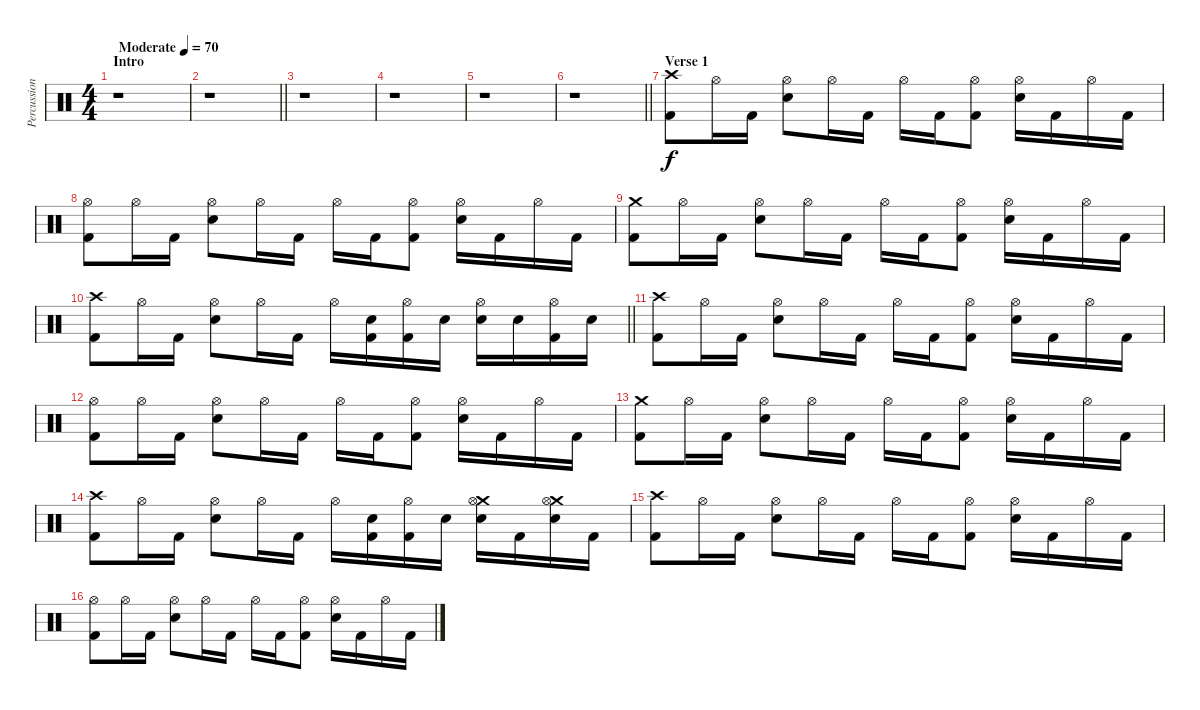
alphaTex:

\track ("Percussion" "Percussion") {instrument percussion}
\staff {score}
\articulation defaults
\ts (4 4)
\section ("" "Intro")
\tempo (70 "Moderate")
\clef neutral
\ks c
r.1{dy f} |
\barLineRight lightlight
r.1 |
r.1 |
r.1 |
r.1 |
\barLineRight lightlight
r.1 |
\section ("" "Verse 1")
("Crash high (hit)" "Kick (hit) 2").8 "Hi-Hat (open)".16 "Kick (hit) 2".16 ("Hi-Hat (open)" "Snare (hit) 2").8 "Hi-Hat (open)".16 "Kick (hit) 2".16 "Hi-Hat (open)".16 "Kick (hit) 2".16 ("Hi-Hat (open)" "Kick (hit) 2").8 ("Hi-Hat (open)" "Snare (hit) 2").16 "Kick (hit) 2".16 "Hi-Hat (open)".16 "Kick (hit) 2".16 |
("Hi-Hat (open)" "Kick (hit) 2").8 "Hi-Hat (open)".16 "Kick (hit) 2".16 ("Hi-Hat (open)" "Snare (hit) 2").8 "Hi-Hat (open)".16 "Kick (hit) 2".16 "Hi-Hat (open)".16 "Kick (hit) 2".16 ("Hi-Hat (open)" "Kick (hit) 2").8 ("Hi-Hat (open)" "Snare (hit) 2").16 "Kick (hit) 2".16 "Hi-Hat (open)".16 "Kick (hit) 2".16 |
("Crash medium (hit)" "Kick (hit) 2").8 "Hi-Hat (open)".16 "Kick (hit) 2".16 ("Hi-Hat (open)" "Snare (hit) 2").8 "Hi-Hat (open)".16 "Kick (hit) 2".16 "Hi-Hat (open)".16 "Kick (hit) 2".16 ("Hi-Hat (open)" "Kick (hit) 2").8 ("Hi-Hat (open)" "Snare (hit) 2").16 "Kick (hit) 2".16 "Hi-Hat (open)".16 "Kick (hit) 2".16 |
\barLineRight lightlight
("Crash high (hit)" "Kick (hit) 2").8 "Hi-Hat (open)".16 "Kick (hit) 2".16 ("Hi-Hat (open)" "Snare (hit) 2").8 "Hi-Hat (open)".16 "Kick (hit) 2".16 "Hi-Hat (open)".16 ("Snare (hit) 2" "Kick (hit) 2").16 ("Hi-Hat (open)" "Kick (hit) 2").16 "Snare (hit) 2".16 ("Hi-Hat (open)" "Snare (hit) 2").16 "Snare (hit) 2".16 ("Hi-Hat (open)" "Kick (hit) 2").16 "Snare (hit) 2".16 |
("Crash high (hit)" "Kick (hit) 2").8 "Hi-Hat (open)".16 "Kick (hit) 2".16 ("Hi-Hat (open)" "Snare (hit) 2").8 "Hi-Hat (open)".16 "Kick (hit) 2".16 "Hi-Hat (open)".16 "Kick (hit) 2".16 ("Hi-Hat (open)" "Kick (hit) 2").8 ("Hi-Hat (open)" "Snare (hit) 2").16 "Kick (hit) 2".16 "Hi-Hat (open)".16 "Kick (hit) 2".16 |
("Hi-Hat (open)" "Kick (hit) 2").8 "Hi-Hat (open)".16 "Kick (hit) 2".16 ("Hi-Hat (open)" "Snare (hit) 2").8 "Hi-Hat (open)".16 "Kick (hit) 2".16 "Hi-Hat (open)".16 "Kick (hit) 2".16 ("Hi-Hat (open)" "Kick (hit) 2").8 ("Hi-Hat (open)" "Snare (hit) 2").16 "Kick (hit) 2".16 "Hi-Hat (open)".16 "Kick (hit) 2".16 |
("Crash medium (hit)" "Kick (hit) 2").8 "Hi-Hat (open)".16 "Kick (hit) 2".16 ("Hi-Hat (open)" "Snare (hit) 2").8 "Hi-Hat (open)".16 "Kick (hit) 2".16 "Hi-Hat (open)".16 "Kick (hit) 2".16 ("Hi-Hat (open)" "Kick (hit) 2").8 ("Hi-Hat (open)" "Snare (hit) 2").16 "Kick (hit) 2".16 "Hi-Hat (open)".16 "Kick (hit) 2".16 |
("Crash high (hit)" "Kick (hit) 2").8 "Hi-Hat (open)".16 "Kick (hit) 2".16 ("Hi-Hat (open)" "Snare (hit) 2").8 "Hi-Hat (open)".16 "Kick (hit) 2".16 "Hi-Hat (open)".16 ("Snare (hit) 2" "Kick (hit) 2").16 ("Hi-Hat (open)" "Kick (hit) 2").16 "Snare (hit) 2".16 ("Crash medium (hit)" "Hi-Hat (open)" "Snare (hit) 2").16 "Kick (hit) 2".16 ("Crash medium (hit)" "Hi-Hat (open)" "Snare (hit) 2").16 "Kick (hit) 2".16 |
("Crash high (hit)" "Kick (hit) 2").8 "Hi-Hat (open)".16 "Kick (hit) 2".16 ("Hi-Hat (open)" "Snare (hit) 2").8 "Hi-Hat (open)".16 "Kick (hit) 2".16 "Hi-Hat (open)".16 "Kick (hit) 2".16 ("Hi-Hat (open)" "Kick (hit) 2").8 ("Hi-Hat (open)" "Snare (hit) 2").16 "Kick (hit) 2".16 "Hi-Hat (open)".16 "Kick (hit) 2".16 |
("Hi-Hat (open)" "Kick (hit) 2").8 "Hi-Hat (open)".16 "Kick (hit) 2".16 ("Hi-Hat (open)" "Snare (hit) 2").8 "Hi-Hat (open)".16 "Kick (hit) 2".16 "Hi-Hat (open)".16 "Kick (hit) 2".16 ("Hi-Hat (open)" "Kick (hit) 2").8 ("Hi-Hat (open)" "Snare (hit) 2").16 "Kick (hit) 2".16 "Hi-Hat (open)".16 "Kick (hit) 2".16
